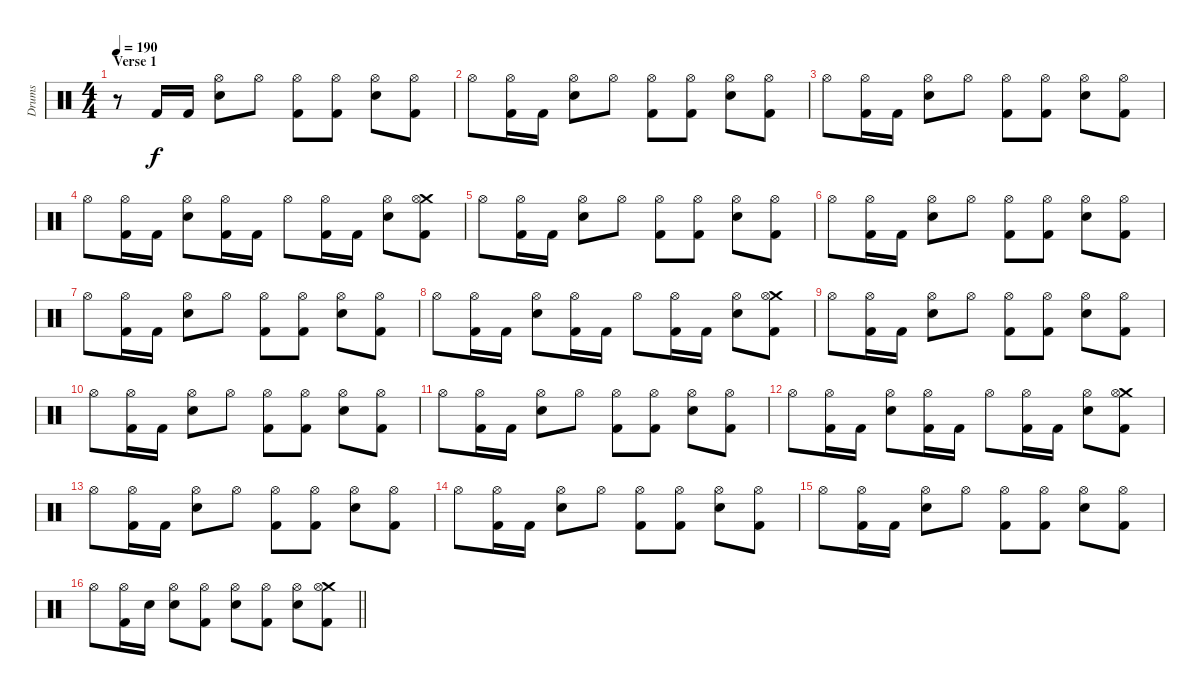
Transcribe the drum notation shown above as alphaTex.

\track ("Drums" "Drums") {instrument percussion}
\staff {score}
\articulation defaults
\ts (4 4)
\section ("" "Verse 1")
\tempo 190
\clef neutral
\ks c
r.8{dy f} "Kick (hit) 2".16 "Kick (hit) 2".16 ("Hi-Hat (open)" "Electric Snare (hit)").8 "Hi-Hat (open)".8 ("Hi-Hat (open)" "Kick (hit) 2").8 ("Hi-Hat (open)" "Kick (hit) 2").8 ("Hi-Hat (open)" "Electric Snare (hit)").8 ("Hi-Hat (open)" "Kick (hit) 2").8 |
"Hi-Hat (open)".8 ("Hi-Hat (open)" "Kick (hit) 2").16 "Kick (hit) 2".16 ("Hi-Hat (open)" "Electric Snare (hit)").8 "Hi-Hat (open)".8 ("Hi-Hat (open)" "Kick (hit) 2").8 ("Hi-Hat (open)" "Kick (hit) 2").8 ("Hi-Hat (open)" "Electric Snare (hit)").8 ("Hi-Hat (open)" "Kick (hit) 2").8 |
"Hi-Hat (open)".8 ("Hi-Hat (open)" "Kick (hit) 2").16 "Kick (hit) 2".16 ("Hi-Hat (open)" "Electric Snare (hit)").8 "Hi-Hat (open)".8 ("Hi-Hat (open)" "Kick (hit) 2").8 ("Hi-Hat (open)" "Kick (hit) 2").8 ("Hi-Hat (open)" "Electric Snare (hit)").8 ("Hi-Hat (open)" "Kick (hit) 2").8 |
"Hi-Hat (open)".8 ("Hi-Hat (open)" "Kick (hit) 2").16 "Kick (hit) 2".16 ("Hi-Hat (open)" "Electric Snare (hit)").8 ("Hi-Hat (open)" "Kick (hit) 2").16 "Kick (hit) 2".16 "Hi-Hat (open)".8 ("Hi-Hat (open)" "Kick (hit) 2").16 "Kick (hit) 2".16 ("Hi-Hat (open)" "Electric Snare (hit)").8 ("Crash medium (hit)" "Hi-Hat (open)" "Kick (hit) 2").8 |
"Hi-Hat (open)".8 ("Hi-Hat (open)" "Kick (hit) 2").16 "Kick (hit) 2".16 ("Hi-Hat (open)" "Electric Snare (hit)").8 "Hi-Hat (open)".8 ("Hi-Hat (open)" "Kick (hit) 2").8 ("Hi-Hat (open)" "Kick (hit) 2").8 ("Hi-Hat (open)" "Electric Snare (hit)").8 ("Hi-Hat (open)" "Kick (hit) 2").8 |
"Hi-Hat (open)".8 ("Hi-Hat (open)" "Kick (hit) 2").16 "Kick (hit) 2".16 ("Hi-Hat (open)" "Electric Snare (hit)").8 "Hi-Hat (open)".8 ("Hi-Hat (open)" "Kick (hit) 2").8 ("Hi-Hat (open)" "Kick (hit) 2").8 ("Hi-Hat (open)" "Electric Snare (hit)").8 ("Hi-Hat (open)" "Kick (hit) 2").8 |
"Hi-Hat (open)".8 ("Hi-Hat (open)" "Kick (hit) 2").16 "Kick (hit) 2".16 ("Hi-Hat (open)" "Electric Snare (hit)").8 "Hi-Hat (open)".8 ("Hi-Hat (open)" "Kick (hit) 2").8 ("Hi-Hat (open)" "Kick (hit) 2").8 ("Hi-Hat (open)" "Electric Snare (hit)").8 ("Hi-Hat (open)" "Kick (hit) 2").8 |
"Hi-Hat (open)".8 ("Hi-Hat (open)" "Kick (hit) 2").16 "Kick (hit) 2".16 ("Hi-Hat (open)" "Electric Snare (hit)").8 ("Hi-Hat (open)" "Kick (hit) 2").16 "Kick (hit) 2".16 "Hi-Hat (open)".8 ("Hi-Hat (open)" "Kick (hit) 2").16 "Kick (hit) 2".16 ("Hi-Hat (open)" "Electric Snare (hit)").8 ("Crash medium (hit)" "Hi-Hat (open)" "Kick (hit) 2").8 |
"Hi-Hat (open)".8 ("Hi-Hat (open)" "Kick (hit) 2").16 "Kick (hit) 2".16 ("Hi-Hat (open)" "Electric Snare (hit)").8 "Hi-Hat (open)".8 ("Hi-Hat (open)" "Kick (hit) 2").8 ("Hi-Hat (open)" "Kick (hit) 2").8 ("Hi-Hat (open)" "Electric Snare (hit)").8 ("Hi-Hat (open)" "Kick (hit) 2").8 |
"Hi-Hat (open)".8 ("Hi-Hat (open)" "Kick (hit) 2").16 "Kick (hit) 2".16 ("Hi-Hat (open)" "Electric Snare (hit)").8 "Hi-Hat (open)".8 ("Hi-Hat (open)" "Kick (hit) 2").8 ("Hi-Hat (open)" "Kick (hit) 2").8 ("Hi-Hat (open)" "Electric Snare (hit)").8 ("Hi-Hat (open)" "Kick (hit) 2").8 |
"Hi-Hat (open)".8 ("Hi-Hat (open)" "Kick (hit) 2").16 "Kick (hit) 2".16 ("Hi-Hat (open)" "Electric Snare (hit)").8 "Hi-Hat (open)".8 ("Hi-Hat (open)" "Kick (hit) 2").8 ("Hi-Hat (open)" "Kick (hit) 2").8 ("Hi-Hat (open)" "Electric Snare (hit)").8 ("Hi-Hat (open)" "Kick (hit) 2").8 |
"Hi-Hat (open)".8 ("Hi-Hat (open)" "Kick (hit) 2").16 "Kick (hit) 2".16 ("Hi-Hat (open)" "Electric Snare (hit)").8 ("Hi-Hat (open)" "Kick (hit) 2").16 "Kick (hit) 2".16 "Hi-Hat (open)".8 ("Hi-Hat (open)" "Kick (hit) 2").16 "Kick (hit) 2".16 ("Hi-Hat (open)" "Electric Snare (hit)").8 ("Crash medium (hit)" "Hi-Hat (open)" "Kick (hit) 2").8 |
"Hi-Hat (open)".8 ("Hi-Hat (open)" "Kick (hit) 2").16 "Kick (hit) 2".16 ("Hi-Hat (open)" "Electric Snare (hit)").8 "Hi-Hat (open)".8 ("Hi-Hat (open)" "Kick (hit) 2").8 ("Hi-Hat (open)" "Kick (hit) 2").8 ("Hi-Hat (open)" "Electric Snare (hit)").8 ("Hi-Hat (open)" "Kick (hit) 2").8 |
"Hi-Hat (open)".8 ("Hi-Hat (open)" "Kick (hit) 2").16 "Kick (hit) 2".16 ("Hi-Hat (open)" "Electric Snare (hit)").8 "Hi-Hat (open)".8 ("Hi-Hat (open)" "Kick (hit) 2").8 ("Hi-Hat (open)" "Kick (hit) 2").8 ("Hi-Hat (open)" "Electric Snare (hit)").8 ("Hi-Hat (open)" "Kick (hit) 2").8 |
"Hi-Hat (open)".8 ("Hi-Hat (open)" "Kick (hit) 2").16 "Kick (hit) 2".16 ("Hi-Hat (open)" "Electric Snare (hit)").8 "Hi-Hat (open)".8 ("Hi-Hat (open)" "Kick (hit) 2").8 ("Hi-Hat (open)" "Kick (hit) 2").8 ("Hi-Hat (open)" "Electric Snare (hit)").8 ("Hi-Hat (open)" "Kick (hit) 2").8 |
\barLineRight lightlight "Hi-Hat (open)".8
("Hi-Hat (open)" "Kick (hit) 2").16 "Electric Snare (hit)".16 ("Hi-Hat (open)" "Electric Snare (hit)").8 ("Hi-Hat (open)" "Kick (hit) 2").8 ("Hi-Hat (open)" "Electric Snare (hit)").8 ("Hi-Hat (open)" "Kick (hit) 2").8 ("Hi-Hat (open)" "Electric Snare (hit)").8 ("Crash medium (hit)" "Hi-Hat (open)" "Kick (hit) 2").8
